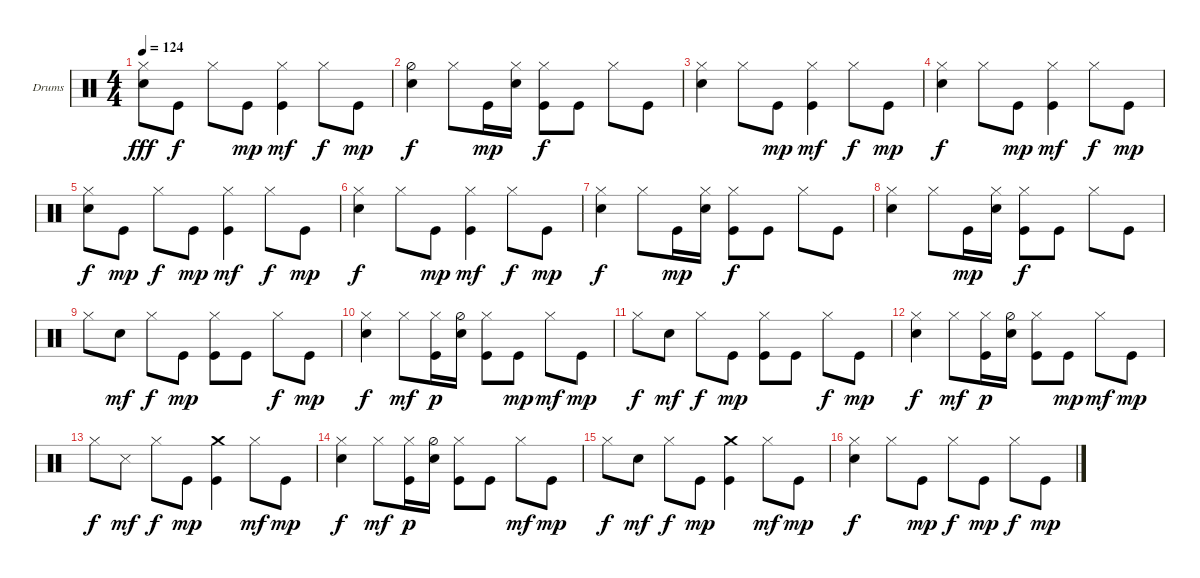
\bracketExtendMode groupsimilarinstruments
\firstSystemTrackNameOrientation horizontal
\otherSystemsTrackNameOrientation horizontal
\track ("drums - john hinch" "Drums") {instrument percussion}
\staff {score}
\articulation defaults
\ts (4 4)
\tempo 124
\clef neutral
\scale
0.333333
\ks c
("Snare (hit) 2" "Hi-Hat (closed)").8{dy fff} "Kick (hit)".8{dy f} "Hi-Hat (closed)".8 "Kick (hit)".8{dy mp} ("Kick (hit)" "Hi-Hat (closed)").4{dy mf} "Hi-Hat (closed)".8{dy f} "Kick (hit)".8{dy mp} |
\scale
0.333333 ("Snare (hit) 2" "Hi-Hat (half)").4{dy f} "Hi-Hat (closed)".8 "Kick (hit)".16{dy mp} ("Snare (hit) 2" "Hi-Hat (closed)").16 ("Kick (hit)" "Hi-Hat (closed)").8{dy f} "Kick (hit)".8 "Hi-Hat (closed)".8 "Kick (hit)".8 |
("Snare (hit) 2" "Hi-Hat (closed)").4 "Hi-Hat (closed)".8 "Kick (hit)".8{dy mp} ("Kick (hit)" "Hi-Hat (closed)").4{dy mf} "Hi-Hat (closed)".8{dy f} "Kick (hit)".8{dy mp} |
\scale
0.333333 ("Snare (hit) 2" "Hi-Hat (closed)").4{dy f} "Hi-Hat (closed)".8 "Kick (hit)".8{dy mp} ("Kick (hit)" "Hi-Hat (closed)").4{dy mf} "Hi-Hat (closed)".8{dy f} "Kick (hit)".8{dy mp} |
\scale
0.333333 ("Snare (hit) 2" "Hi-Hat (closed)").8{dy f} "Kick (hit)".8{dy mp} "Hi-Hat (closed)".8{dy f} "Kick (hit)".8{dy mp} ("Kick (hit)" "Hi-Hat (closed)").4{dy mf} "Hi-Hat (closed)".8{dy f} "Kick (hit)".8{dy mp} |
\scale
0.333333 ("Snare (hit) 2" "Hi-Hat (closed)").4{dy f} "Hi-Hat (closed)".8 "Kick (hit)".8{dy mp} ("Kick (hit)" "Hi-Hat (closed)").4{dy mf} "Hi-Hat (closed)".8{dy f} "Kick (hit)".8{dy mp} |
\scale
0.333333 ("Snare (hit) 2" "Hi-Hat (closed)").4{dy f} "Hi-Hat (closed)".8 "Kick (hit)".16{dy mp} ("Snare (hit) 2" "Hi-Hat (closed)").16 ("Kick (hit)" "Hi-Hat (closed)").8{dy f} "Kick (hit)".8 "Hi-Hat (closed)".8 "Kick (hit)".8 |
\scale
0.333333 ("Snare (hit) 2" "Hi-Hat (closed)").4 "Hi-Hat (closed)".8 "Kick (hit)".16{dy mp} ("Snare (hit) 2" "Hi-Hat (closed)").16 ("Kick (hit)" "Hi-Hat (closed)").8{dy f} "Kick (hit)".8 "Hi-Hat (closed)".8 "Kick (hit)".8 |
\scale
0.333333 "Hi-Hat (closed)".8 "Snare (hit) 2".8{dy mf} "Hi-Hat (closed)".8{dy f} "Kick (hit)".8{dy mp} ("Kick (hit)" "Hi-Hat (closed)").8 "Kick (hit)".8 "Hi-Hat (closed)".8{dy f} "Kick (hit)".8{dy mp} |
\scale
0.333333 ("Snare (hit) 2" "Hi-Hat (closed)").4{dy f} "Hi-Hat (closed)".8{dy mf} ("Kick (hit)" "Hi-Hat (closed)").16{dy p} ("Snare (hit) 2" "Hi-Hat (half)").16 ("Kick (hit)" "Hi-Hat (closed)").8 "Kick (hit)".8{dy mp} "Hi-Hat (closed)".8{dy mf} "Kick (hit)".8{dy mp} |
\scale
0.333333 "Hi-Hat (closed)".8{dy f} "Snare (hit) 2".8{dy mf} "Hi-Hat (closed)".8{dy f} "Kick (hit)".8{dy mp} ("Kick (hit)" "Hi-Hat (closed)").8 "Kick (hit)".8 "Hi-Hat (closed)".8{dy f} "Kick (hit)".8{dy mp} |
\scale
0.333333 ("Snare (hit) 2" "Hi-Hat (closed)").4{dy f} "Hi-Hat (closed)".8{dy mf} ("Kick (hit)" "Hi-Hat (closed)").16{dy p} ("Snare (hit) 2" "Hi-Hat (half)").16 ("Kick (hit)" "Hi-Hat (closed)").8 "Kick (hit)".8{dy mp} "Hi-Hat (closed)".8{dy mf} "Kick (hit)".8{dy mp} |
\scale
0.333333 "Hi-Hat (closed)".8{dy f} "Snare (side stick) 3".8{dy mf} "Hi-Hat (closed)".8{dy f} "Kick (hit)".8{dy mp} ("Kick (hit)" "Crash medium (hit)").4 "Hi-Hat (closed)".8{dy mf} "Kick (hit)".8{dy mp} |
\scale
0.333333 ("Snare (hit) 2" "Hi-Hat (closed)").4{dy f} "Hi-Hat (closed)".8{dy mf} ("Kick (hit)" "Hi-Hat (closed)").16{dy p} ("Snare (hit) 2" "Hi-Hat (half)").16 ("Kick (hit)" "Hi-Hat (closed)").8 "Kick (hit)".8 "Hi-Hat (closed)".8{dy mf} "Kick (hit)".8{dy mp} |
\scale
0.333333 "Hi-Hat (closed)".8{dy f} "Snare (hit) 2".8{dy mf} "Hi-Hat (closed)".8{dy f} "Kick (hit)".8{dy mp} ("Kick (hit)" "Crash medium (hit)").4 "Hi-Hat (closed)".8{dy mf} "Kick (hit)".8{dy mp} |
\scale
0.333333 ("Snare (hit) 2" "Hi-Hat (closed)").4{dy f} "Hi-Hat (closed)".8 "Kick (hit)".8{dy mp} "Hi-Hat (closed)".8{dy f} "Kick (hit)".8{dy mp} "Hi-Hat (closed)".8{dy f} "Kick (hit)".8{dy mp}
